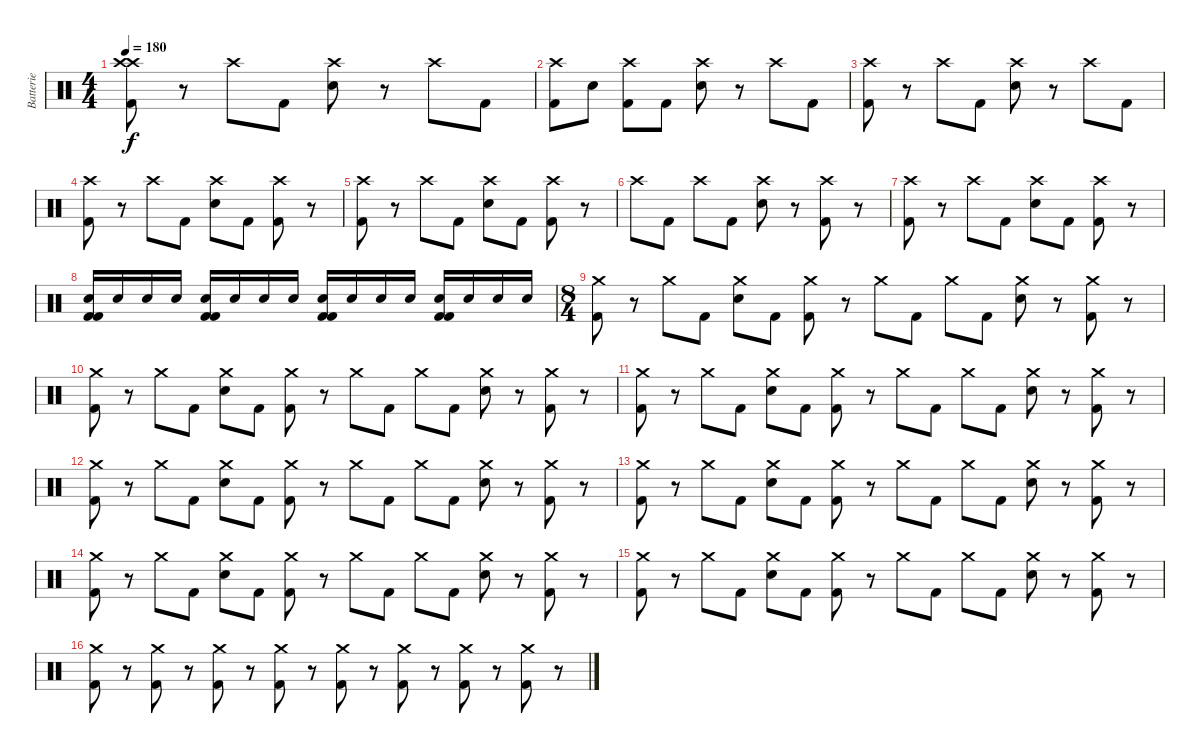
\track ("Batterie" "Batterie") {instrument percussion}
\staff {score}
\articulation defaults
\ts (4 4)
\tempo 180
\clef neutral
\ks c
("Crash high (hit)" "Crash high (hit)" "Kick (hit) 2").8{dy f} r.8 "Crash high (hit)".8 "Kick (hit) 2".8 ("Crash high (hit)" "Snare (hit) 2").8 r.8 "Crash high (hit)".8 "Kick (hit) 2".8 |
("Crash high (hit)" "Kick (hit) 2").8 "Snare (hit) 2".8 ("Crash high (hit)" "Kick (hit) 2").8 "Kick (hit) 2".8 ("Crash high (hit)" "Snare (hit) 2").8 r.8 "Crash high (hit)".8 "Kick (hit) 2".8 |
("Crash high (hit)" "Kick (hit) 2").8 r.8 "Crash high (hit)".8 "Kick (hit) 2".8 ("Crash high (hit)" "Snare (hit) 2").8 r.8 "Crash high (hit)".8 "Kick (hit) 2".8 |
("Crash high (hit)" "Kick (hit) 2").8 r.8 "Crash high (hit)".8 "Kick (hit) 2".8 ("Crash high (hit)" "Snare (hit) 2").8 "Kick (hit) 2".8 ("Crash high (hit)" "Kick (hit) 2").8 r.8 |
("Crash high (hit)" "Kick (hit) 2").8 r.8 "Crash high (hit)".8 "Kick (hit) 2".8 ("Crash high (hit)" "Snare (hit) 2").8 "Kick (hit) 2".8 ("Crash high (hit)" "Kick (hit) 2").8 r.8 |
"Crash high (hit)".8 "Kick (hit) 2".8 "Crash high (hit)".8 "Kick (hit) 2".8 ("Crash high (hit)" "Snare (hit) 2").8 r.8 ("Crash high (hit)" "Kick (hit) 2").8 r.8 |
("Crash high (hit)" "Kick (hit) 2").8 r.8 "Crash high (hit)".8 "Kick (hit) 2".8 ("Crash high (hit)" "Snare (hit) 2").8 "Kick (hit) 2".8 ("Crash high (hit)" "Kick (hit) 2").8 r.8 |
("Kick (hit) 2" "Snare (hit) 2" "Kick (hit) 2").16 "Snare (hit) 2".16 "Snare (hit) 2".16 "Snare (hit) 2".16 ("Kick (hit) 2" "Snare (hit) 2" "Kick (hit) 2").16 "Snare (hit) 2".16 "Snare (hit) 2".16 "Snare (hit) 2".16 ("Kick (hit) 2" "Snare (hit) 2" "Kick (hit) 2").16 "Snare (hit) 2".16 "Snare (hit) 2".16 "Snare (hit) 2".16 ("Kick (hit) 2" "Snare (hit) 2" "Kick (hit) 2").16 "Snare (hit) 2".16 "Snare (hit) 2".16 "Snare (hit) 2".16 |
\ts (8 4)
("Crash medium (hit)" "Kick (hit) 2").8 r.8 "Crash medium (hit)".8 "Kick (hit) 2".8 ("Crash medium (hit)" "Snare (hit) 2").8 "Kick (hit) 2".8 ("Crash medium (hit)" "Kick (hit) 2").8 r.8 "Crash medium (hit)".8 "Kick (hit) 2".8 "Crash medium (hit)".8 "Kick (hit) 2".8 ("Crash medium (hit)" "Snare (hit) 2").8 r.8 ("Crash medium (hit)" "Kick (hit) 2").8 r.8 |
("Crash medium (hit)" "Kick (hit) 2").8 r.8 "Crash medium (hit)".8 "Kick (hit) 2".8 ("Crash medium (hit)" "Snare (hit) 2").8 "Kick (hit) 2".8 ("Crash medium (hit)" "Kick (hit) 2").8 r.8 "Crash medium (hit)".8 "Kick (hit) 2".8 "Crash medium (hit)".8 "Kick (hit) 2".8 ("Crash medium (hit)" "Snare (hit) 2").8 r.8 ("Crash medium (hit)" "Kick (hit) 2").8 r.8 |
("Crash medium (hit)" "Kick (hit) 2").8 r.8 "Crash medium (hit)".8 "Kick (hit) 2".8 ("Crash medium (hit)" "Snare (hit) 2").8 "Kick (hit) 2".8 ("Crash medium (hit)" "Kick (hit) 2").8 r.8 "Crash medium (hit)".8 "Kick (hit) 2".8 "Crash medium (hit)".8 "Kick (hit) 2".8 ("Crash medium (hit)" "Snare (hit) 2").8 r.8 ("Crash medium (hit)" "Kick (hit) 2").8 r.8 |
("Crash medium (hit)" "Kick (hit) 2").8 r.8 "Crash medium (hit)".8 "Kick (hit) 2".8 ("Crash medium (hit)" "Snare (hit) 2").8 "Kick (hit) 2".8 ("Crash medium (hit)" "Kick (hit) 2").8 r.8 "Crash medium (hit)".8 "Kick (hit) 2".8 "Crash medium (hit)".8 "Kick (hit) 2".8 ("Crash medium (hit)" "Snare (hit) 2").8 r.8 ("Crash medium (hit)" "Kick (hit) 2").8 r.8 |
("Crash medium (hit)" "Kick (hit) 2").8 r.8 "Crash medium (hit)".8 "Kick (hit) 2".8 ("Crash medium (hit)" "Snare (hit) 2").8 "Kick (hit) 2".8 ("Crash medium (hit)" "Kick (hit) 2").8 r.8 "Crash medium (hit)".8 "Kick (hit) 2".8 "Crash medium (hit)".8 "Kick (hit) 2".8 ("Crash medium (hit)" "Snare (hit) 2").8 r.8 ("Crash medium (hit)" "Kick (hit) 2").8 r.8 |
("Crash medium (hit)" "Kick (hit) 2").8 r.8 "Crash medium (hit)".8 "Kick (hit) 2".8 ("Crash medium (hit)" "Snare (hit) 2").8 "Kick (hit) 2".8 ("Crash medium (hit)" "Kick (hit) 2").8 r.8 "Crash medium (hit)".8 "Kick (hit) 2".8 "Crash medium (hit)".8 "Kick (hit) 2".8 ("Crash medium (hit)" "Snare (hit) 2").8 r.8 ("Crash medium (hit)" "Kick (hit) 2").8 r.8 |
("Crash medium (hit)" "Kick (hit) 2").8 r.8 "Crash medium (hit)".8 "Kick (hit) 2".8 ("Crash medium (hit)" "Snare (hit) 2").8 "Kick (hit) 2".8 ("Crash medium (hit)" "Kick (hit) 2").8 r.8 "Crash medium (hit)".8 "Kick (hit) 2".8 "Crash medium (hit)".8 "Kick (hit) 2".8 ("Crash medium (hit)" "Snare (hit) 2").8 r.8 ("Crash medium (hit)" "Kick (hit) 2").8 r.8 |
("Crash medium (hit)" "Kick (hit) 2").8 r.8 ("Crash medium (hit)" "Kick (hit) 2").8 r.8 ("Crash medium (hit)" "Kick (hit) 2").8 r.8 ("Crash medium (hit)" "Kick (hit) 2").8 r.8 ("Crash medium (hit)" "Kick (hit) 2").8 r.8 ("Crash medium (hit)" "Kick (hit) 2").8 r.8 ("Crash medium (hit)" "Kick (hit) 2").8 r.8 ("Crash medium (hit)" "Kick (hit) 2").8 r.8
